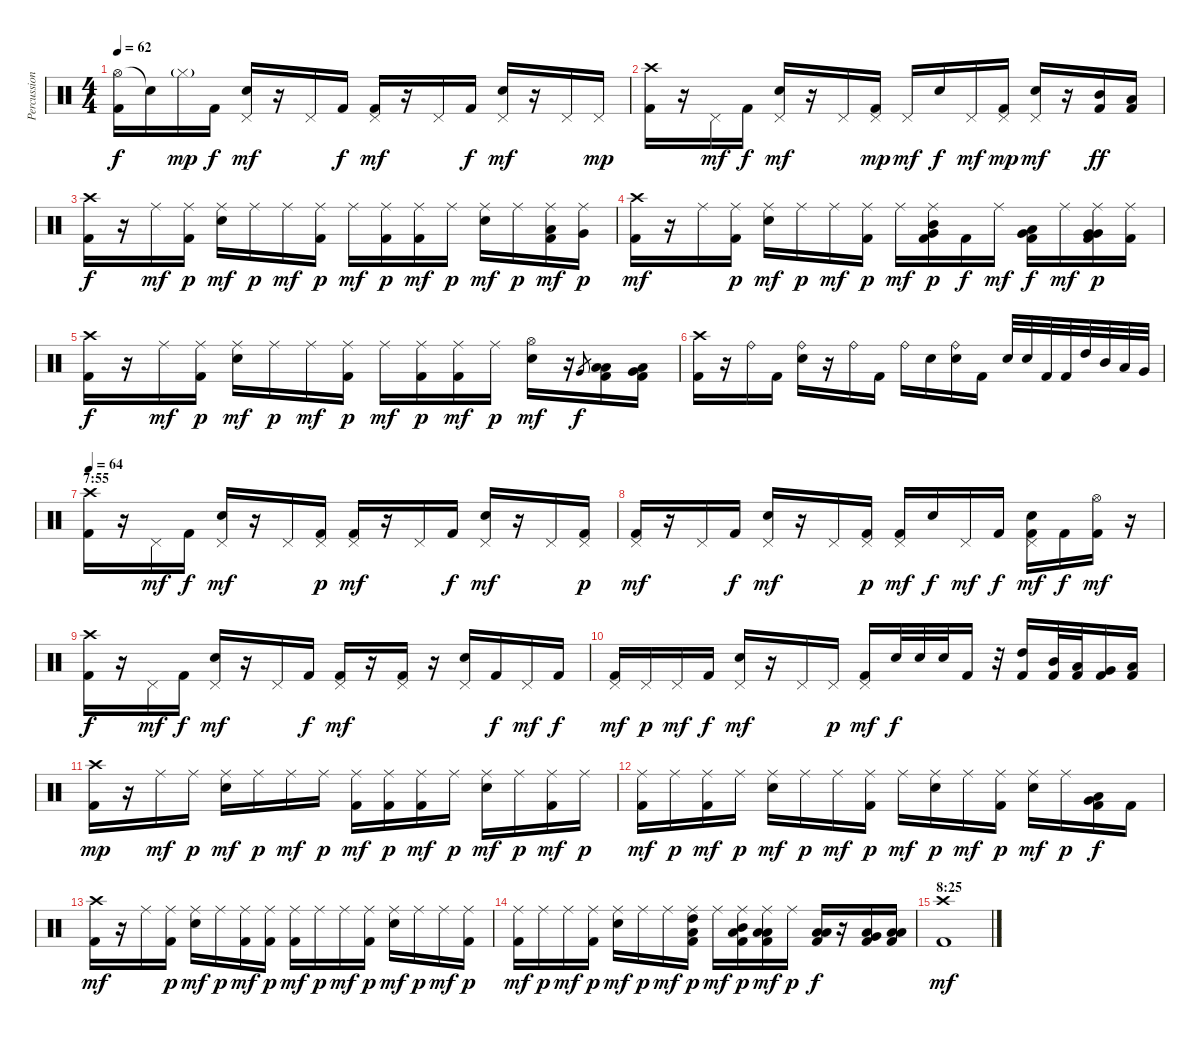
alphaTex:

\track ("Percussion" "Percussion") {instrument percussion}
\staff {score}
\articulation defaults
\ts (4 4)
\tempo 62
\clef neutral
\ks c
("Hi-Hat (open)" "Kick (hit) 2").16{dy f} "Snare (hit)"{t}.16 "Hi-Hat (closed)"{g}.16{dy mp} "Kick (hit) 2".16{dy f} ("Pedal Hi-Hat (hit)" "Snare (hit) 2").16{dy mf} r.16 "Pedal Hi-Hat (hit)".16 "Kick (hit) 2".16{dy f} ("Pedal Hi-Hat (hit)" "Kick (hit) 2").16{dy mf} r.16 "Pedal Hi-Hat (hit)".16 "Kick (hit) 2".16{dy f} ("Pedal Hi-Hat (hit)" "Snare (hit) 2").16{dy mf} r.16 "Pedal Hi-Hat (hit)".16 "Pedal Hi-Hat (hit)".16{dy mp} |
("Crash high (hit)" "Kick (hit) 2").16 r.16 "Pedal Hi-Hat (hit)".16{dy mf} "Kick (hit) 2".16{dy f} ("Pedal Hi-Hat (hit)" "Snare (hit) 2").16{dy mf} r.16 "Pedal Hi-Hat (hit)".16 ("Pedal Hi-Hat (hit)" "Kick (hit) 2").16{dy mp} "Pedal Hi-Hat (hit)".16{dy mf} "Snare (hit) 2".16{dy f} "Pedal Hi-Hat (hit)".16{dy mf} ("Pedal Hi-Hat (hit)" "Kick (hit) 2").16{dy mp} ("Pedal Hi-Hat (hit)" "Snare (hit) 2").16{dy mf} r.16 ("Mid Tom (hit)" "Kick (hit) 2").16{dy ff} ("Low Tom (hit)" "Kick (hit) 2").16 |
("Crash high (hit)" "Kick (hit) 2").16{dy f} r.16 "Ride (middle)".16{dy mf} ("Ride (middle)" "Kick (hit) 2").16{dy p} ("Ride (middle)" "Snare (hit) 2").16{dy mf} "Ride (middle)".16{dy p} "Ride (middle)".16{dy mf} ("Ride (middle)" "Kick (hit) 2").16{dy p} "Ride (middle)".16{dy mf} ("Ride (middle)" "Kick (hit) 2").16{dy p} ("Ride (middle)" "Kick (hit) 2").16{dy mf} "Ride (middle)".16{dy p} ("Ride (middle)" "Snare (hit) 2").16{dy mf} "Ride (middle)".16{dy p} ("Ride (middle)" "Low Tom (hit)" "Kick (hit) 2").16{dy mf} ("Ride (middle)" "Very Low Tom (hit)").16{dy p} |
("Crash high (hit)" "Kick (hit) 2").16{dy mf} r.16 "Ride (middle)".16 ("Ride (middle)" "Kick (hit) 2").16{dy p} ("Ride (middle)" "Snare (hit) 2").16{dy mf} "Ride (middle)".16{dy p} "Ride (middle)".16{dy mf} ("Ride (middle)" "Kick (hit) 2").16{dy p} "Ride (middle)".16{dy mf} ("Ride (middle)" "Very Low Tom (hit)" "Mid Tom (hit)" "Kick (hit) 2").16{dy p} "Kick (hit) 2".16{dy f} "Ride (middle)".16{dy mf} ("Very Low Tom (hit)" "Low Tom (hit)" "Kick (hit) 2").16{dy f} "Ride (middle)".16{dy mf} ("Ride (middle)" "Very Low Tom (hit)" "Very Low Tom (hit)" "Kick (hit) 2").16{dy p} ("Ride (middle)" "Kick (hit) 2").16 |
("Crash high (hit)" "Kick (hit) 2").16{dy f} r.16 "Ride (middle)".16{dy mf} ("Ride (middle)" "Kick (hit) 2").16{dy p} ("Ride (middle)" "Snare (hit) 2").16{dy mf} "Ride (middle)".16{dy p} "Ride (middle)".16{dy mf} ("Ride (middle)" "Kick (hit) 2").16{dy p} "Ride (middle)".16{dy mf} ("Ride (middle)" "Kick (hit) 2").16{dy p} ("Ride (middle)" "Kick (hit) 2").16{dy mf} "Ride (middle)".16{dy p} ("Hi-Hat (open)" "Snare (hit) 2").16{dy mf} r.16 "Very Low Tom (hit)".8{gr dy f} ("Low Tom (hit)" "Low Tom (hit)" "Kick (hit) 2").16 ("Low Tom (hit)" "Very Low Tom (hit)" "Kick (hit) 2").16 |
("Crash high (hit)" "Kick (hit) 2").16 r.16 "Ride (bell)".16 "Kick (hit) 2".16 ("Ride (bell)" "Snare (hit) 2").16 r.16 "Ride (bell)".16 "Kick (hit) 2".16 "Ride (bell)".16 "Snare (hit) 2".16 ("Ride (bell)" "Snare (hit) 2").16 "Kick (hit) 2".16 "Snare (hit) 2".32 "Snare (hit) 2".32 "Kick (hit) 2".32 "Kick (hit) 2".32 "High Tom (hit)".32 "Mid Tom (hit)".32 "Low Tom (hit)".32 "Very Low Tom (hit)".32 |
\section ("" "7:55")
\tempo 64
("Crash high (hit)" "Kick (hit) 2").16 r.16 "Pedal Hi-Hat (hit)".16{dy mf} "Kick (hit) 2".16{dy f} ("Pedal Hi-Hat (hit)" "Snare (hit) 2").16{dy mf} r.16 "Pedal Hi-Hat (hit)".16 ("Pedal Hi-Hat (hit)" "Kick (hit) 2").16{dy p} ("Pedal Hi-Hat (hit)" "Kick (hit) 2").16{dy mf} r.16 "Pedal Hi-Hat (hit)".16 "Kick (hit) 2".16{dy f} ("Pedal Hi-Hat (hit)" "Snare (hit) 2").16{dy mf} r.16 "Pedal Hi-Hat (hit)".16 ("Pedal Hi-Hat (hit)" "Kick (hit) 2").16{dy p} |
("Pedal Hi-Hat (hit)" "Kick (hit) 2").16{dy mf} r.16 "Pedal Hi-Hat (hit)".16 "Kick (hit) 2".16{dy f} ("Pedal Hi-Hat (hit)" "Snare (hit) 2").16{dy mf} r.16 "Pedal Hi-Hat (hit)".16 ("Pedal Hi-Hat (hit)" "Kick (hit) 2").16{dy p} ("Pedal Hi-Hat (hit)" "Kick (hit) 2").16{dy mf} "Snare (hit) 2".16{dy f} "Pedal Hi-Hat (hit)".16{dy mf} "Kick (hit) 2".16{dy f} ("Pedal Hi-Hat (hit)" "Snare (hit) 2" "Kick (hit) 2").16{dy mf} "Kick (hit) 2".16{dy f} ("Hi-Hat (open)" "Kick (hit) 2").16{dy mf} r.16 |
("Crash high (hit)" "Kick (hit) 2").16{dy f} r.16 "Pedal Hi-Hat (hit)".16{dy mf} "Kick (hit) 2".16{dy f} ("Pedal Hi-Hat (hit)" "Snare (hit) 2").16{dy mf} r.16 "Pedal Hi-Hat (hit)".16 "Kick (hit) 2".16{dy f} ("Pedal Hi-Hat (hit)" "Kick (hit) 2").16{dy mf} r.16 ("Pedal Hi-Hat (hit)" "Kick (hit) 2").16 r.16 ("Pedal Hi-Hat (hit)" "Snare (hit) 2").16 "Kick (hit) 2".16{dy f} "Pedal Hi-Hat (hit)".16{dy mf} "Kick (hit) 2".16{dy f} |
("Pedal Hi-Hat (hit)" "Kick (hit) 2").16{dy mf} "Pedal Hi-Hat (hit)".16{dy p} "Pedal Hi-Hat (hit)".16{dy mf} "Kick (hit) 2".16{dy f} ("Pedal Hi-Hat (hit)" "Snare (hit) 2").16{dy mf} r.16 "Pedal Hi-Hat (hit)".16 "Pedal Hi-Hat (hit)".16{dy p} ("Pedal Hi-Hat (hit)" "Kick (hit) 2").16{dy mf} "Snare (hit) 2".32{dy f} "Snare (hit) 2".32 "Snare (hit) 2".32 "Kick (hit) 2".16 r.32 ("High Tom (hit)" "Kick (hit) 2").16 ("Mid Tom (hit)" "Kick (hit) 2").32 ("Low Tom (hit)" "Kick (hit) 2").32 ("Very Low Tom (hit)" "Kick (hit) 2").16 ("Low Floor Tom (hit)" "Kick (hit) 2").16 |
("Crash high (hit)" "Kick (hit) 2").16{dy mp} r.16 "Ride (middle)".16{dy mf} "Ride (middle)".16{dy p} ("Ride (middle)" "Snare (hit) 2").16{dy mf} "Ride (middle)".16{dy p} "Ride (middle)".16{dy mf} "Ride (middle)".16{dy p} ("Ride (middle)" "Kick (hit) 2").16{dy mf} ("Ride (middle)" "Kick (hit) 2").16{dy p} ("Ride (middle)" "Kick (hit) 2").16{dy mf} "Ride (middle)".16{dy p} ("Ride (middle)" "Snare (hit) 2").16{dy mf} "Ride (middle)".16{dy p} ("Ride (middle)" "Kick (hit) 2").16{dy mf} "Ride (middle)".16{dy p} |
("Ride (middle)" "Kick (hit) 2").16{dy mf} "Ride (middle)".16{dy p} ("Ride (middle)" "Kick (hit) 2").16{dy mf} "Ride (middle)".16{dy p} ("Ride (middle)" "Snare (hit) 2").16{dy mf} "Ride (middle)".16{dy p} "Ride (middle)".16{dy mf} ("Ride (middle)" "Kick (hit) 2").16{dy p} "Ride (middle)".16{dy mf} ("Ride (middle)" "Snare (hit) 2").16{dy p} "Ride (middle)".16{dy mf} ("Ride (middle)" "Kick (hit) 2").16{dy p} ("Ride (middle)" "Snare (hit) 2").16{dy mf} "Ride (middle)".16{dy p} ("Very Low Tom (hit)" "Low Tom (hit)" "Kick (hit) 2").16{dy f} "Kick (hit) 2".16 |
("Crash high (hit)" "Kick (hit) 2").16{dy mf} r.16 "Ride (middle)".16 ("Ride (middle)" "Kick (hit) 2").16{dy p} ("Ride (middle)" "Snare (hit) 2").16{dy mf} "Ride (middle)".16{dy p} ("Ride (middle)" "Kick (hit) 2").16{dy mf} ("Ride (middle)" "Kick (hit) 2").16{dy p} ("Ride (middle)" "Kick (hit) 2").16{dy mf} "Ride (middle)".16{dy p} "Ride (middle)".16{dy mf} ("Ride (middle)" "Kick (hit) 2").16{dy p} ("Ride (middle)" "Snare (hit) 2").16{dy mf} "Ride (middle)".16{dy p} "Ride (middle)".16{dy mf} ("Ride (middle)" "Kick (hit) 2").16{dy p} |
("Ride (middle)" "Kick (hit) 2").16{dy mf} "Ride (middle)".16{dy p} "Ride (middle)".16{dy mf} ("Ride (middle)" "Kick (hit) 2").16{dy p} ("Ride (middle)" "Snare (hit) 2").16{dy mf} "Ride (middle)".16{dy p} "Ride (middle)".16{dy mf} ("Ride (middle)" "Low Tom (hit)" "High Tom (hit)" "Kick (hit) 2").16{dy p} "Ride (middle)".16{dy mf} ("Ride (middle)" "Low Tom (hit)" "Mid Tom (hit)" "Kick (hit) 2").16{dy p} ("Ride (middle)" "Low Tom (hit)" "Low Tom (hit)" "Kick (hit) 2").16{dy mf} "Ride (middle)".16{dy p} ("Low Tom (hit)" "Low Tom (hit)" "Kick (hit) 2").16{dy f} r.16 ("Low Tom (hit)" "Very Low Tom (hit)" "Kick (hit) 2").16 ("Low Tom (hit)" "Low Floor Tom (hit)" "Kick (hit) 2").16 |
\section ("" "8:25")
("Crash high (hit)" "Kick (hit) 2").1{dy mf}
